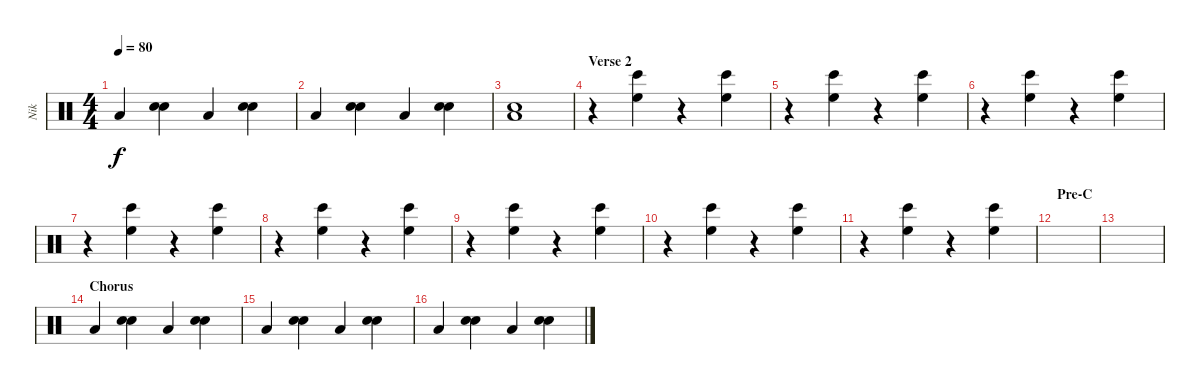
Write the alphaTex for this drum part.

\track ("Nik" "Nik") {instrument percussion}
\staff {score}
\articulation defaults
\ts (4 4)
\tempo 80
\clef neutral
\ks c "Low Floor Tom (hit)".4{dy f}
("Hand Clap (hit)" "Hand Clap (hit)").4 "Low Floor Tom (hit)".4 ("Hand Clap (hit)" "Hand Clap (hit)").4 |
"Low Floor Tom (hit)".4 ("Hand Clap (hit)" "Hand Clap (hit)").4 "Low Floor Tom (hit)".4 ("Hand Clap (hit)" "Hand Clap (hit)").4 |
("Hand Clap (hit)" "Low Floor Tom (hit)").1 |
\section ("" "Verse 2")
r.4 ("High Floor Tom (hit)" "Bongo High (hit)").4 r.4 ("High Floor Tom (hit)" "Bongo High (hit)").4 |
r.4 ("High Floor Tom (hit)" "Bongo High (hit)").4 r.4 ("High Floor Tom (hit)" "Bongo High (hit)").4 |
r.4 ("High Floor Tom (hit)" "Bongo High (hit)").4 r.4 ("High Floor Tom (hit)" "Bongo High (hit)").4 |
r.4 ("High Floor Tom (hit)" "Bongo High (hit)").4 r.4 ("High Floor Tom (hit)" "Bongo High (hit)").4 |
r.4 ("High Floor Tom (hit)" "Bongo High (hit)").4 r.4 ("High Floor Tom (hit)" "Bongo High (hit)").4 |
r.4 ("High Floor Tom (hit)" "Bongo High (hit)").4 r.4 ("High Floor Tom (hit)" "Bongo High (hit)").4 |
r.4 ("High Floor Tom (hit)" "Bongo High (hit)").4 r.4 ("High Floor Tom (hit)" "Bongo High (hit)").4 |
r.4 ("High Floor Tom (hit)" "Bongo High (hit)").4 r.4 ("High Floor Tom (hit)" "Bongo High (hit)").4 |
\section ("" "Pre-C")
|
|
\section ("" "Chorus")
"Low Floor Tom (hit)".4 ("Hand Clap (hit)" "Hand Clap (hit)").4 "Low Floor Tom (hit)".4 ("Hand Clap (hit)" "Hand Clap (hit)").4 |
"Low Floor Tom (hit)".4 ("Hand Clap (hit)" "Hand Clap (hit)").4 "Low Floor Tom (hit)".4 ("Hand Clap (hit)" "Hand Clap (hit)").4 |
"Low Floor Tom (hit)".4 ("Hand Clap (hit)" "Hand Clap (hit)").4 "Low Floor Tom (hit)".4 ("Hand Clap (hit)" "Hand Clap (hit)").4
